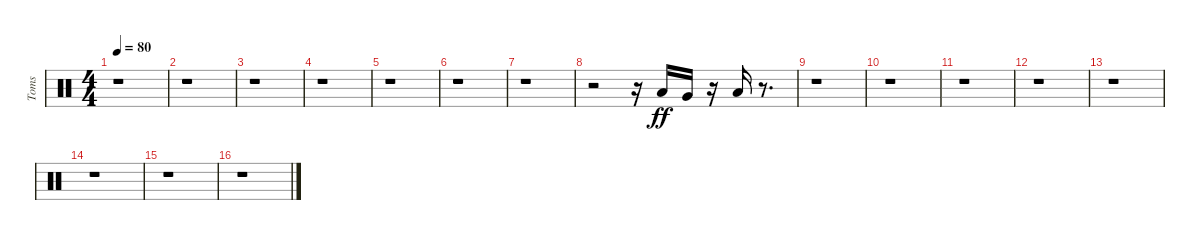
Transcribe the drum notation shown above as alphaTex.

\track ("Toms" "Toms") {instrument percussion}
\staff {score}
\articulation defaults
\ts (4 4)
\tempo 80
\clef neutral
\ks c
r.1{dy ff} |
r.1 |
r.1 |
r.1 |
r.1 |
r.1 |
r.1 |
r.2 r.16 "Low Tom (hit)".16 "Very Low Tom (hit)".16 r.16 "Low Floor Tom (hit)".16 r.8{d} |
r.1 |
r.1 |
r.1 |
r.1 |
r.1 |
r.1 |
r.1 |
r.1
